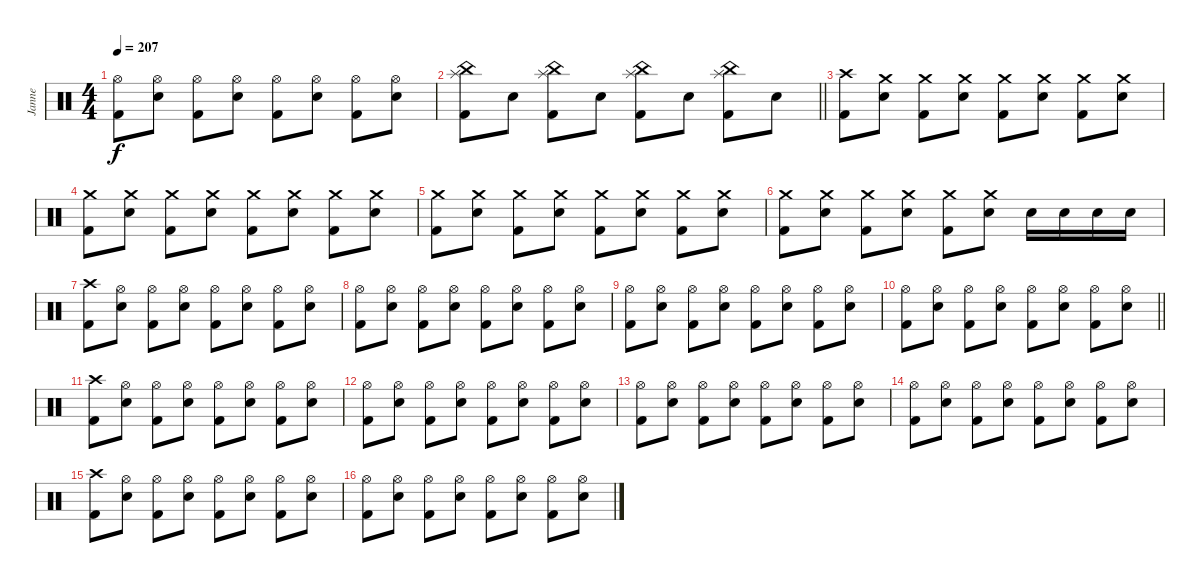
\track ("Janne" "Janne") {instrument percussion}
\staff {score}
\articulation defaults
\ts (4 4)
\tempo 207
\clef neutral
\ks c
("Hi-Hat (open)" "Kick (hit) 2").8{dy f} ("Hi-Hat (open)" "Electric Snare (hit)").8 ("Hi-Hat (open)" "Kick (hit) 2").8 ("Hi-Hat (open)" "Electric Snare (hit)").8 ("Hi-Hat (open)" "Kick (hit) 2").8 ("Hi-Hat (open)" "Electric Snare (hit)").8 ("Hi-Hat (open)" "Kick (hit) 2").8 ("Hi-Hat (open)" "Electric Snare (hit)").8 |
\barLineRight lightlight
("Splash (hit)" "China (hit)" "Kick (hit) 2").8 "Electric Snare (hit)".8 ("Splash (hit)" "China (hit)" "Kick (hit) 2").8 "Electric Snare (hit)".8 ("Splash (hit)" "China (hit)" "Kick (hit) 2").8 "Electric Snare (hit)".8 ("Splash (hit)" "China (hit)" "Kick (hit) 2").8 "Electric Snare (hit)".8 |
\section ("" "")
("Crash high (hit)" "Kick (hit) 2").8 ("Crash medium (hit)" "Electric Snare (hit)").8 ("Crash medium (hit)" "Kick (hit) 2").8 ("Crash medium (hit)" "Electric Snare (hit)").8 ("Crash medium (hit)" "Kick (hit) 2").8 ("Crash medium (hit)" "Electric Snare (hit)").8 ("Crash medium (hit)" "Kick (hit) 2").8 ("Crash medium (hit)" "Electric Snare (hit)").8 |
("Crash medium (hit)" "Kick (hit) 2").8 ("Crash medium (hit)" "Electric Snare (hit)").8 ("Crash medium (hit)" "Kick (hit) 2").8 ("Crash medium (hit)" "Electric Snare (hit)").8 ("Crash medium (hit)" "Kick (hit) 2").8 ("Crash medium (hit)" "Electric Snare (hit)").8 ("Crash medium (hit)" "Kick (hit) 2").8 ("Crash medium (hit)" "Electric Snare (hit)").8 |
("Crash medium (hit)" "Kick (hit) 2").8 ("Crash medium (hit)" "Electric Snare (hit)").8 ("Crash medium (hit)" "Kick (hit) 2").8 ("Crash medium (hit)" "Electric Snare (hit)").8 ("Crash medium (hit)" "Kick (hit) 2").8 ("Crash medium (hit)" "Electric Snare (hit)").8 ("Crash medium (hit)" "Kick (hit) 2").8 ("Crash medium (hit)" "Electric Snare (hit)").8 |
("Crash medium (hit)" "Kick (hit) 2").8 ("Crash medium (hit)" "Electric Snare (hit)").8 ("Crash medium (hit)" "Kick (hit) 2").8 ("Crash medium (hit)" "Electric Snare (hit)").8 ("Crash medium (hit)" "Kick (hit) 2").8 ("Crash medium (hit)" "Electric Snare (hit)").8 "Electric Snare (hit)".16 "Electric Snare (hit)".16 "Electric Snare (hit)".16 "Electric Snare (hit)".16 |
("Crash high (hit)" "Kick (hit) 2").8 ("Hi-Hat (open)" "Electric Snare (hit)").8 ("Hi-Hat (open)" "Kick (hit) 2").8 ("Hi-Hat (open)" "Electric Snare (hit)").8 ("Hi-Hat (open)" "Kick (hit) 2").8 ("Hi-Hat (open)" "Electric Snare (hit)").8 ("Hi-Hat (open)" "Kick (hit) 2").8 ("Hi-Hat (open)" "Electric Snare (hit)").8 |
("Hi-Hat (open)" "Kick (hit) 2").8 ("Hi-Hat (open)" "Electric Snare (hit)").8 ("Hi-Hat (open)" "Kick (hit) 2").8 ("Hi-Hat (open)" "Electric Snare (hit)").8 ("Hi-Hat (open)" "Kick (hit) 2").8 ("Hi-Hat (open)" "Electric Snare (hit)").8 ("Hi-Hat (open)" "Kick (hit) 2").8 ("Hi-Hat (open)" "Electric Snare (hit)").8 |
("Hi-Hat (open)" "Kick (hit) 2").8 ("Hi-Hat (open)" "Electric Snare (hit)").8 ("Hi-Hat (open)" "Kick (hit) 2").8 ("Hi-Hat (open)" "Electric Snare (hit)").8 ("Hi-Hat (open)" "Kick (hit) 2").8 ("Hi-Hat (open)" "Electric Snare (hit)").8 ("Hi-Hat (open)" "Kick (hit) 2").8 ("Hi-Hat (open)" "Electric Snare (hit)").8 |
\barLineRight lightlight
("Hi-Hat (open)" "Kick (hit) 2").8 ("Hi-Hat (open)" "Electric Snare (hit)").8 ("Hi-Hat (open)" "Kick (hit) 2").8 ("Hi-Hat (open)" "Electric Snare (hit)").8 ("Hi-Hat (open)" "Kick (hit) 2").8 ("Hi-Hat (open)" "Electric Snare (hit)").8 ("Hi-Hat (open)" "Kick (hit) 2").8 ("Hi-Hat (open)" "Electric Snare (hit)").8 |
\section ("" "")
("Crash high (hit)" "Kick (hit) 2").8 ("Hi-Hat (open)" "Electric Snare (hit)").8 ("Hi-Hat (open)" "Kick (hit) 2").8 ("Hi-Hat (open)" "Electric Snare (hit)").8 ("Hi-Hat (open)" "Kick (hit) 2").8 ("Hi-Hat (open)" "Electric Snare (hit)").8 ("Hi-Hat (open)" "Kick (hit) 2").8 ("Hi-Hat (open)" "Electric Snare (hit)").8 |
("Hi-Hat (open)" "Kick (hit) 2").8 ("Hi-Hat (open)" "Electric Snare (hit)").8 ("Hi-Hat (open)" "Kick (hit) 2").8 ("Hi-Hat (open)" "Electric Snare (hit)").8 ("Hi-Hat (open)" "Kick (hit) 2").8 ("Hi-Hat (open)" "Electric Snare (hit)").8 ("Hi-Hat (open)" "Kick (hit) 2").8 ("Hi-Hat (open)" "Electric Snare (hit)").8 |
("Hi-Hat (open)" "Kick (hit) 2").8 ("Hi-Hat (open)" "Electric Snare (hit)").8 ("Hi-Hat (open)" "Kick (hit) 2").8 ("Hi-Hat (open)" "Electric Snare (hit)").8 ("Hi-Hat (open)" "Kick (hit) 2").8 ("Hi-Hat (open)" "Electric Snare (hit)").8 ("Hi-Hat (open)" "Kick (hit) 2").8 ("Hi-Hat (open)" "Electric Snare (hit)").8 |
("Hi-Hat (open)" "Kick (hit) 2").8 ("Hi-Hat (open)" "Electric Snare (hit)").8 ("Hi-Hat (open)" "Kick (hit) 2").8 ("Hi-Hat (open)" "Electric Snare (hit)").8 ("Hi-Hat (open)" "Kick (hit) 2").8 ("Hi-Hat (open)" "Electric Snare (hit)").8 ("Hi-Hat (open)" "Kick (hit) 2").8 ("Hi-Hat (open)" "Electric Snare (hit)").8 |
("Crash high (hit)" "Kick (hit) 2").8 ("Hi-Hat (open)" "Electric Snare (hit)").8 ("Hi-Hat (open)" "Kick (hit) 2").8 ("Hi-Hat (open)" "Electric Snare (hit)").8 ("Hi-Hat (open)" "Kick (hit) 2").8 ("Hi-Hat (open)" "Electric Snare (hit)").8 ("Hi-Hat (open)" "Kick (hit) 2").8 ("Hi-Hat (open)" "Electric Snare (hit)").8 |
("Hi-Hat (open)" "Kick (hit) 2").8 ("Hi-Hat (open)" "Electric Snare (hit)").8 ("Hi-Hat (open)" "Kick (hit) 2").8 ("Hi-Hat (open)" "Electric Snare (hit)").8 ("Hi-Hat (open)" "Kick (hit) 2").8 ("Hi-Hat (open)" "Electric Snare (hit)").8 ("Hi-Hat (open)" "Kick (hit) 2").8 ("Hi-Hat (open)" "Electric Snare (hit)").8
